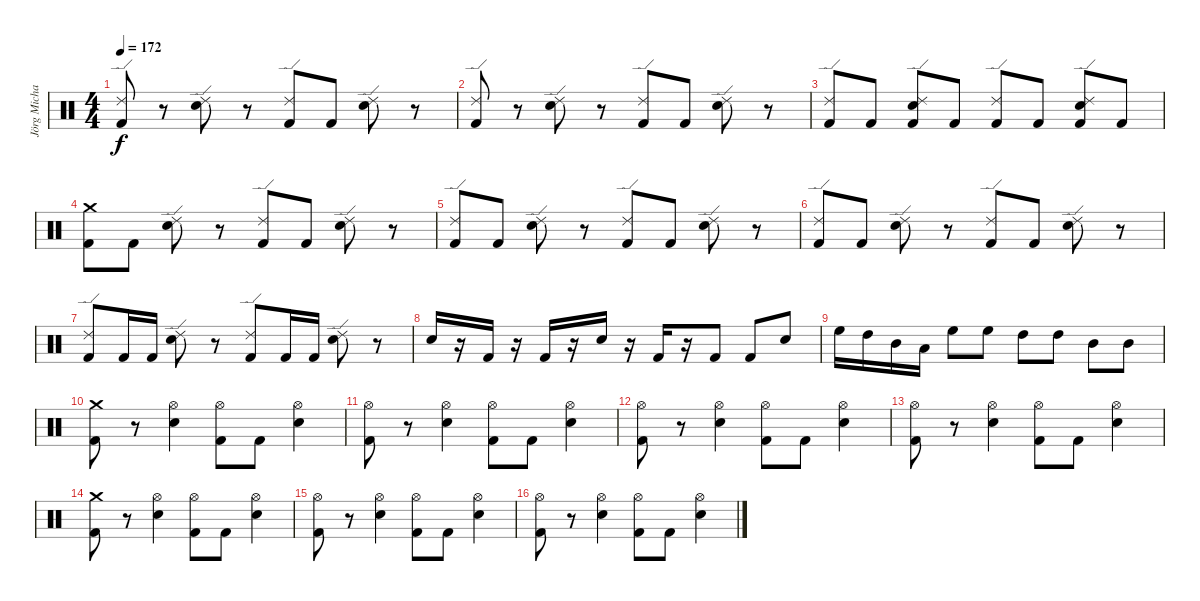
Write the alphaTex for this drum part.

\track ("Jörg Michael" "Jörg Micha") {instrument percussion}
\staff {score}
\articulation defaults
\ts (4 4)
\tempo 172
\clef neutral
\ks c
("Ride (edge) 2" "Kick (hit) 2").8{dy f} r.8 ("Ride (edge) 2" "Electric Snare (hit)").8 r.8 ("Ride (edge) 2" "Kick (hit) 2").8 "Kick (hit) 2".8 ("Ride (edge) 2" "Electric Snare (hit)").8 r.8 |
("Ride (edge) 2" "Kick (hit) 2").8 r.8 ("Ride (edge) 2" "Electric Snare (hit)").8 r.8 ("Ride (edge) 2" "Kick (hit) 2").8 "Kick (hit) 2".8 ("Ride (edge) 2" "Electric Snare (hit)").8 r.8 |
("Ride (edge) 2" "Kick (hit) 2").8 "Kick (hit) 2".8 ("Kick (hit) 2" "Ride (edge) 2" "Electric Snare (hit)").8 "Kick (hit) 2".8 ("Kick (hit) 2" "Ride (edge) 2").8 "Kick (hit) 2".8 ("Kick (hit) 2" "Ride (edge) 2" "Electric Snare (hit)").8 "Kick (hit) 2".8 |
("Crash medium (hit)" "Kick (hit) 2").8 "Kick (hit) 2".8 ("Ride (edge) 2" "Electric Snare (hit)").8 r.8 ("Ride (edge) 2" "Kick (hit) 2").8 "Kick (hit) 2".8 ("Ride (edge) 2" "Electric Snare (hit)").8 r.8 |
("Ride (edge) 2" "Kick (hit) 2").8 "Kick (hit) 2".8 ("Ride (edge) 2" "Electric Snare (hit)").8 r.8 ("Ride (edge) 2" "Kick (hit) 2").8 "Kick (hit) 2".8 ("Ride (edge) 2" "Electric Snare (hit)").8 r.8 |
("Ride (edge) 2" "Kick (hit) 2").8 "Kick (hit) 2".8 ("Ride (edge) 2" "Electric Snare (hit)").8 r.8 ("Ride (edge) 2" "Kick (hit) 2").8 "Kick (hit) 2".8 ("Ride (edge) 2" "Electric Snare (hit)").8 r.8 |
("Ride (edge) 2" "Kick (hit) 2").8 "Kick (hit) 2".16 "Kick (hit) 2".16 ("Ride (edge) 2" "Electric Snare (hit)").8 r.8 ("Ride (edge) 2" "Kick (hit) 2").8 "Kick (hit) 2".16 "Kick (hit) 2".16 ("Ride (edge) 2" "Electric Snare (hit)").8 r.8 |
"Electric Snare (hit)".16 r.16 "Kick (hit) 2".16 r.16 "Kick (hit) 2".16 r.16 "Electric Snare (hit)".16 r.16 "Kick (hit) 2".16 r.16 "Kick (hit) 2".8 "Kick (hit) 2".8 "Electric Snare (hit)".8 |
"High Floor Tom (hit)".16 "High Tom (hit)".16 "Mid Tom (hit)".16 "Low Tom (hit)".16 "High Floor Tom (hit)".8 "High Floor Tom (hit)".8 "High Tom (hit)".8 "High Tom (hit)".8 "Mid Tom (hit)".8 "Mid Tom (hit)".8 |
("Kick (hit) 2" "Crash medium (hit)").8 r.8 ("Hi-Hat (open)" "Electric Snare (hit)").4 ("Hi-Hat (open)" "Kick (hit) 2").8 "Kick (hit) 2".8 ("Hi-Hat (open)" "Electric Snare (hit)").4 |
("Hi-Hat (open)" "Kick (hit) 2").8 r.8 ("Hi-Hat (open)" "Electric Snare (hit)").4 ("Hi-Hat (open)" "Kick (hit) 2").8 "Kick (hit) 2".8 ("Hi-Hat (open)" "Electric Snare (hit)").4 |
("Hi-Hat (open)" "Kick (hit) 2").8 r.8 ("Hi-Hat (open)" "Electric Snare (hit)").4 ("Hi-Hat (open)" "Kick (hit) 2").8 "Kick (hit) 2".8 ("Hi-Hat (open)" "Electric Snare (hit)").4 |
("Hi-Hat (open)" "Kick (hit) 2").8 r.8 ("Hi-Hat (open)" "Electric Snare (hit)").4 ("Hi-Hat (open)" "Kick (hit) 2").8 "Kick (hit) 2".8 ("Hi-Hat (open)" "Electric Snare (hit)").4 |
("Kick (hit) 2" "Crash medium (hit)").8 r.8 ("Hi-Hat (open)" "Electric Snare (hit)").4 ("Hi-Hat (open)" "Kick (hit) 2").8 "Kick (hit) 2".8 ("Hi-Hat (open)" "Electric Snare (hit)").4 |
("Hi-Hat (open)" "Kick (hit) 2").8 r.8 ("Hi-Hat (open)" "Electric Snare (hit)").4 ("Hi-Hat (open)" "Kick (hit) 2").8 "Kick (hit) 2".8 ("Hi-Hat (open)" "Electric Snare (hit)").4 |
("Hi-Hat (open)" "Kick (hit) 2").8 r.8 ("Hi-Hat (open)" "Electric Snare (hit)").4 ("Hi-Hat (open)" "Kick (hit) 2").8 "Kick (hit) 2".8 ("Electric Snare (hit)" "Hi-Hat (open)").4
